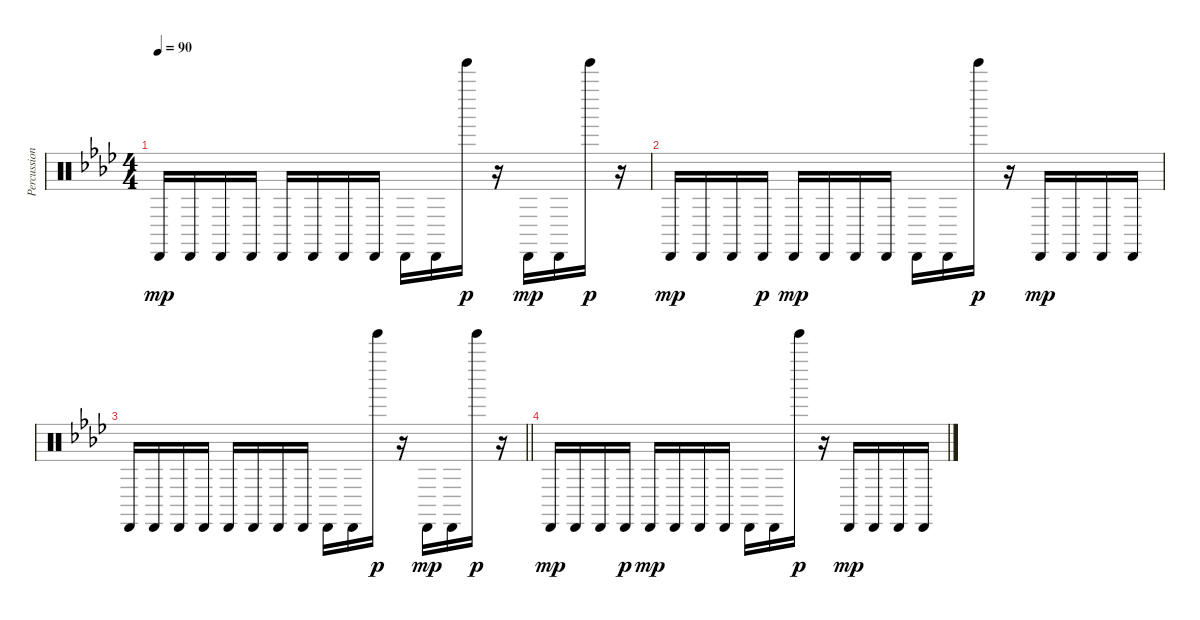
\track ("Percussion" "Percussion") {instrument percussion}
\staff {score}
\articulation defaults
\ts (4 4)
\tempo 90
\clef neutral
\ks ab "Cabasa (hit)".16{dy mp} "Cabasa (hit)".16 "Cabasa (hit)".16 "Cabasa (hit)".16 "Cabasa (hit)".16 "Cabasa (hit)".16 "Cabasa (hit)".16 "Cabasa (hit)".16 "Cabasa (hit)".16 "Cabasa (hit)".16 "Tinkle Bell (hit)".16{dy p}
r.16 "Cabasa (hit)".16{dy mp} "Cabasa (hit)".16 "Tinkle Bell (hit)".16{dy p} r.16 |
"Cabasa (hit)".16{dy mp} "Cabasa (hit)".16 "Cabasa (hit)".16 "Cabasa (hit)".16{dy p} "Cabasa (hit)".16{dy mp} "Cabasa (hit)".16 "Cabasa (hit)".16 "Cabasa (hit)".16 "Cabasa (hit)".16 "Cabasa (hit)".16 "Tinkle Bell (hit)".16{dy p} r.16 "Cabasa (hit)".16{dy mp} "Cabasa (hit)".16 "Cabasa (hit)".16 "Cabasa (hit)".16 |
\barLineRight lightlight "Cabasa (hit)".16 "Cabasa (hit)".16 "Cabasa (hit)".16 "Cabasa (hit)".16 "Cabasa (hit)".16 "Cabasa (hit)".16 "Cabasa (hit)".16 "Cabasa (hit)".16 "Cabasa (hit)".16 "Cabasa (hit)".16 "Tinkle Bell (hit)".16{dy p}
r.16 "Cabasa (hit)".16{dy mp} "Cabasa (hit)".16 "Tinkle Bell (hit)".16{dy p} r.16 |
"Cabasa (hit)".16{dy mp} "Cabasa (hit)".16 "Cabasa (hit)".16 "Cabasa (hit)".16{dy p} "Cabasa (hit)".16{dy mp} "Cabasa (hit)".16 "Cabasa (hit)".16 "Cabasa (hit)".16 "Cabasa (hit)".16 "Cabasa (hit)".16 "Tinkle Bell (hit)".16{dy p} r.16 "Cabasa (hit)".16{dy mp} "Cabasa (hit)".16 "Cabasa (hit)".16 "Cabasa (hit)".16
